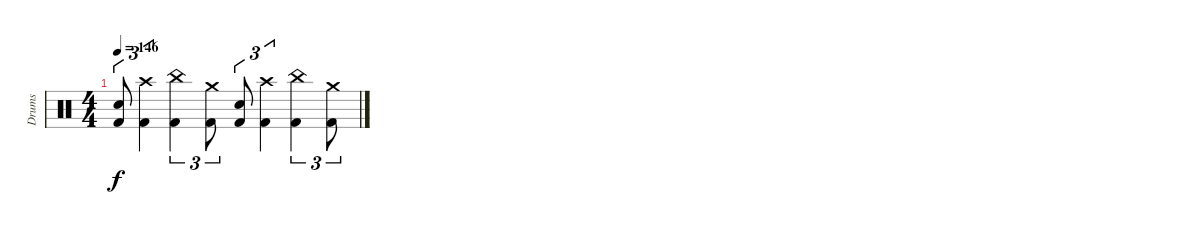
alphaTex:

\track ("Drums" "Drums") {instrument percussion}
\staff {score}
\articulation defaults
\ts (4 4)
\tempo 146
\clef neutral
\ks c
("Snare (hit) 2" "Kick (hit) 2").8{tu (3 2) dy f} ("Crash high (hit)" "Kick (hit) 2").4{tu (3 2)} ("China (hit)" "Kick (hit) 2").4{tu (3 2)} ("Crash medium (hit)" "Kick (hit) 2").8{tu (3 2)} ("Snare (hit) 2" "Kick (hit) 2").8{tu (3 2)} ("Crash high (hit)" "Kick (hit) 2").4{tu (3 2)} ("China (hit)" "Kick (hit) 2").4{tu (3 2)} ("Crash medium (hit)" "Kick (hit) 2").8{tu (3 2)}
